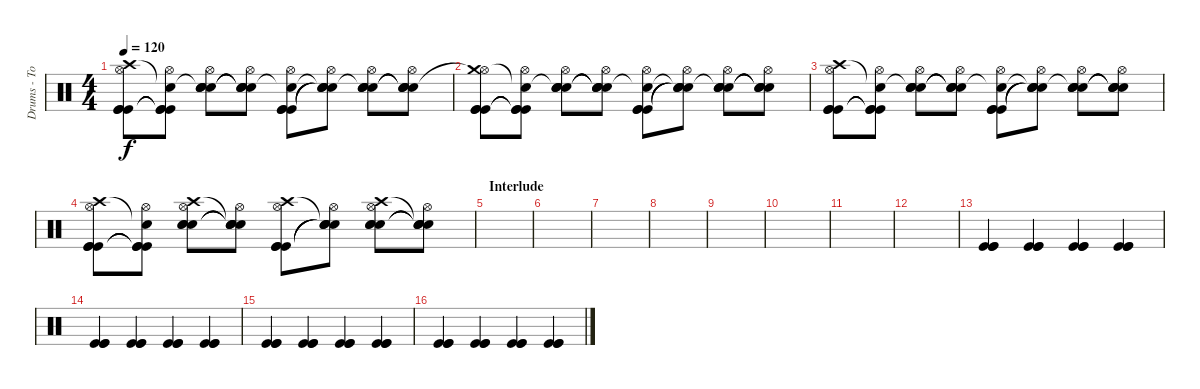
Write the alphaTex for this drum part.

\track ("Drums - Tom" "Drums - To") {instrument percussion}
\staff {score}
\articulation defaults
\ts (4 4)
\tempo 120
\clef neutral
\ks c
("Kick (hit)" "Kick (hit)" "Kick (hit)" "Hi-Hat (open)" "Crash high (hit)").8{dy f} ("Kick (hit)"{t} "Kick (hit)"{t} "Kick (hit)"{t} "Hi-Hat (open)" "Snare (hit)"{t}).8 ("Snare (hit) 2" "Snare (hit) 2" "Snare (hit) 2" "Hi-Hat (open)" "Snare (hit)"{t}).8 ("Snare (hit) 2"{t} "Snare (hit) 2"{t} "Snare (hit) 2"{t} "Hi-Hat (open)" "Snare (hit)"{t}).8 ("Kick (hit)" "Kick (hit)" "Kick (hit)" "Hi-Hat (open)" "Snare (hit)"{t}).8 ("Snare (hit)"{t} "Snare (hit)"{t} "Snare (hit)"{t} "Hi-Hat (open)" "Snare (hit)"{t}).8 ("Snare (hit) 2" "Snare (hit) 2" "Snare (hit) 2" "Hi-Hat (open)" "Snare (hit)"{t}).8 ("Snare (hit)"{t} "Snare (hit)"{t} "Snare (hit)"{t} "Hi-Hat (open)" "Snare (hit)"{t}).8 |
("Kick (hit)" "Kick (hit)" "Kick (hit)" "Hi-Hat (open)" "Crash medium (hit)"{t}).8 ("Kick (hit)"{t} "Kick (hit)"{t} "Kick (hit)"{t} "Hi-Hat (open)" "Snare (hit)"{t}).8 ("Snare (hit) 2" "Snare (hit) 2" "Snare (hit) 2" "Hi-Hat (open)" "Snare (hit)"{t}).8 ("Snare (hit) 2"{t} "Snare (hit) 2"{t} "Snare (hit) 2"{t} "Hi-Hat (open)" "Snare (hit)"{t}).8 ("Kick (hit)" "Kick (hit)" "Kick (hit)" "Hi-Hat (open)" "Snare (hit)"{t}).8 ("Snare (hit)"{t} "Snare (hit)"{t} "Snare (hit)"{t} "Hi-Hat (open)" "Snare (hit)"{t}).8 ("Snare (hit) 2" "Snare (hit) 2" "Snare (hit) 2" "Hi-Hat (open)" "Snare (hit)"{t}).8 ("Snare (hit)"{t} "Snare (hit)"{t} "Snare (hit)"{t} "Hi-Hat (open)" "Snare (hit)"{t}).8 |
("Kick (hit)" "Kick (hit)" "Kick (hit)" "Hi-Hat (open)" "Crash high (hit)").8 ("Kick (hit)"{t} "Kick (hit)"{t} "Kick (hit)"{t} "Hi-Hat (open)" "Snare (hit)"{t}).8 ("Snare (hit) 2" "Snare (hit) 2" "Snare (hit) 2" "Hi-Hat (open)" "Snare (hit)"{t}).8 ("Snare (hit) 2"{t} "Snare (hit) 2"{t} "Snare (hit) 2"{t} "Hi-Hat (open)" "Snare (hit)"{t}).8 ("Kick (hit)" "Kick (hit)" "Kick (hit)" "Hi-Hat (open)" "Snare (hit)"{t}).8 ("Snare (hit)"{t} "Snare (hit)"{t} "Snare (hit)"{t} "Hi-Hat (open)" "Snare (hit)"{t}).8 ("Snare (hit) 2" "Snare (hit) 2" "Snare (hit) 2" "Hi-Hat (open)" "Snare (hit)"{t}).8 ("Snare (hit)"{t} "Snare (hit)"{t} "Snare (hit)"{t} "Hi-Hat (open)" "Snare (hit)"{t}).8 |
("Kick (hit)" "Kick (hit)" "Kick (hit)" "Hi-Hat (open)" "Crash high (hit)").8 ("Kick (hit)"{t} "Kick (hit)"{t} "Kick (hit)"{t} "Hi-Hat (open)" "Snare (hit)"{t}).8 ("Snare (hit) 2" "Snare (hit) 2" "Snare (hit) 2" "Hi-Hat (open)" "Crash high (hit)").8 ("Snare (hit) 2"{t} "Snare (hit) 2"{t} "Snare (hit) 2"{t} "Hi-Hat (open)" "Snare (hit)"{t}).8 ("Kick (hit)" "Kick (hit)" "Kick (hit)" "Hi-Hat (open)" "Crash high (hit)").8 ("Snare (hit)"{t} "Snare (hit)"{t} "Snare (hit)"{t} "Hi-Hat (open)" "Snare (hit)"{t}).8 ("Snare (hit) 2" "Snare (hit) 2" "Snare (hit) 2" "Hi-Hat (open)" "Crash high (hit)").8 ("Snare (hit)"{t} "Snare (hit)"{t} "Snare (hit)"{t} "Hi-Hat (open)" "Snare (hit)"{t}).8 |
\section ("" "Interlude")
|
|
|
|
|
|
|
|
("Kick (hit)" "Kick (hit)" "Kick (hit)").4 ("Kick (hit)" "Kick (hit)" "Kick (hit)").4 ("Kick (hit)" "Kick (hit)" "Kick (hit)").4 ("Kick (hit)" "Kick (hit)" "Kick (hit)").4 |
("Kick (hit)" "Kick (hit)" "Kick (hit)").4 ("Kick (hit)" "Kick (hit)" "Kick (hit)").4 ("Kick (hit)" "Kick (hit)" "Kick (hit)").4 ("Kick (hit)" "Kick (hit)" "Kick (hit)").4 |
("Kick (hit)" "Kick (hit)" "Kick (hit)").4 ("Kick (hit)" "Kick (hit)" "Kick (hit)").4 ("Kick (hit)" "Kick (hit)" "Kick (hit)").4 ("Kick (hit)" "Kick (hit)" "Kick (hit)").4 |
("Kick (hit)" "Kick (hit)" "Kick (hit)").4 ("Kick (hit)" "Kick (hit)" "Kick (hit)").4 ("Kick (hit)" "Kick (hit)" "Kick (hit)").4 ("Kick (hit)" "Kick (hit)" "Kick (hit)").4
